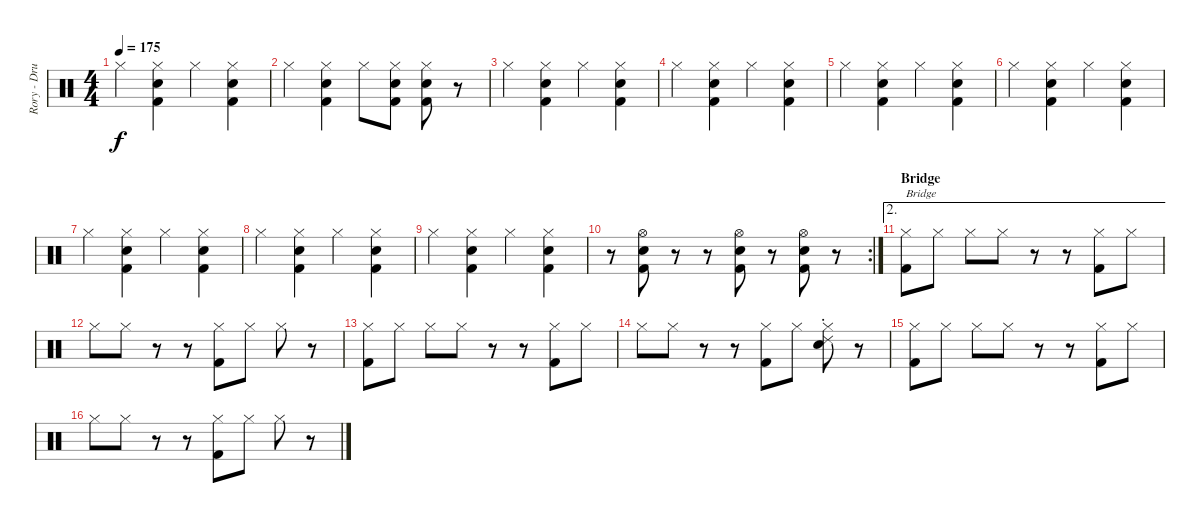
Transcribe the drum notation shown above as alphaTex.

\track ("Rory - Drums" "Rory - Dru") {instrument percussion}
\staff {score}
\articulation defaults
\ts (4 4)
\tempo 175
\clef neutral
\ks c "Hi-Hat (closed)".4{dy f}
("Hi-Hat (closed)" "Kick (hit) 2" "Snare (hit) 2").4 "Hi-Hat (closed)".4 ("Hi-Hat (closed)" "Kick (hit) 2" "Snare (hit) 2").4 |
"Hi-Hat (closed)".4 ("Hi-Hat (closed)" "Kick (hit) 2" "Snare (hit) 2").4 "Hi-Hat (closed)".8 ("Hi-Hat (closed)" "Kick (hit) 2" "Snare (hit) 2").8 ("Hi-Hat (closed)" "Kick (hit) 2" "Snare (hit) 2").8 r.8 |
"Hi-Hat (closed)".4 ("Hi-Hat (closed)" "Kick (hit) 2" "Snare (hit) 2").4 "Hi-Hat (closed)".4 ("Hi-Hat (closed)" "Kick (hit) 2" "Snare (hit) 2").4 |
"Hi-Hat (closed)".4 ("Hi-Hat (closed)" "Kick (hit) 2" "Snare (hit) 2").4 "Hi-Hat (closed)".4 ("Hi-Hat (closed)" "Kick (hit) 2" "Snare (hit) 2").4 |
"Hi-Hat (closed)".4 ("Hi-Hat (closed)" "Kick (hit) 2" "Snare (hit) 2").4 "Hi-Hat (closed)".4 ("Hi-Hat (closed)" "Kick (hit) 2" "Snare (hit) 2").4 |
"Hi-Hat (closed)".4 ("Hi-Hat (closed)" "Kick (hit) 2" "Snare (hit) 2").4 "Hi-Hat (closed)".4 ("Hi-Hat (closed)" "Kick (hit) 2" "Snare (hit) 2").4 |
"Hi-Hat (closed)".4 ("Hi-Hat (closed)" "Kick (hit) 2" "Snare (hit) 2").4 "Hi-Hat (closed)".4 ("Hi-Hat (closed)" "Kick (hit) 2" "Snare (hit) 2").4 |
"Hi-Hat (closed)".4 ("Hi-Hat (closed)" "Kick (hit) 2" "Snare (hit) 2").4 "Hi-Hat (closed)".4 ("Hi-Hat (closed)" "Kick (hit) 2" "Snare (hit) 2").4 |
"Hi-Hat (closed)".4 ("Hi-Hat (closed)" "Kick (hit) 2" "Snare (hit) 2").4 "Hi-Hat (closed)".4 ("Hi-Hat (closed)" "Kick (hit) 2" "Snare (hit) 2").4 |
\rc 2
r.8 ("Kick (hit) 2" "Hi-Hat (open)" "Snare (hit) 2").8 r.8 r.8 ("Kick (hit) 2" "Hi-Hat (open)" "Snare (hit) 2").8 r.8 ("Kick (hit) 2" "Hi-Hat (open)" "Snare (hit) 2").8 r.8 |
\ae 2
\section ("" "Bridge")
("Hi-Hat (closed)" "Kick (hit) 2").8{txt "Bridge"} "Hi-Hat (closed)".8 "Hi-Hat (closed)".8 "Hi-Hat (closed)".8 r.8 r.8 ("Hi-Hat (closed)" "Kick (hit) 2").8 "Hi-Hat (closed)".8 |
"Hi-Hat (closed)".8 "Hi-Hat (closed)".8 r.8 r.8 ("Hi-Hat (closed)" "Kick (hit) 2").8 "Hi-Hat (closed)".8 "Hi-Hat (closed)".8 r.8 |
("Hi-Hat (closed)" "Kick (hit) 2").8 "Hi-Hat (closed)".8 "Hi-Hat (closed)".8 "Hi-Hat (closed)".8 r.8 r.8 ("Hi-Hat (closed)" "Kick (hit) 2").8 "Hi-Hat (closed)".8 |
"Hi-Hat (closed)".8 "Hi-Hat (closed)".8 r.8 r.8 ("Hi-Hat (closed)" "Kick (hit) 2").8 "Hi-Hat (closed)".8 ("Hi-Hat (closed)" "Ride (choke) 2" "Snare (hit) 2").8 r.8 |
("Hi-Hat (closed)" "Kick (hit) 2").8 "Hi-Hat (closed)".8 "Hi-Hat (closed)".8 "Hi-Hat (closed)".8 r.8 r.8 ("Hi-Hat (closed)" "Kick (hit) 2").8 "Hi-Hat (closed)".8 |
"Hi-Hat (closed)".8 "Hi-Hat (closed)".8 r.8 r.8 ("Hi-Hat (closed)" "Kick (hit) 2").8 "Hi-Hat (closed)".8 "Hi-Hat (closed)".8 r.8
